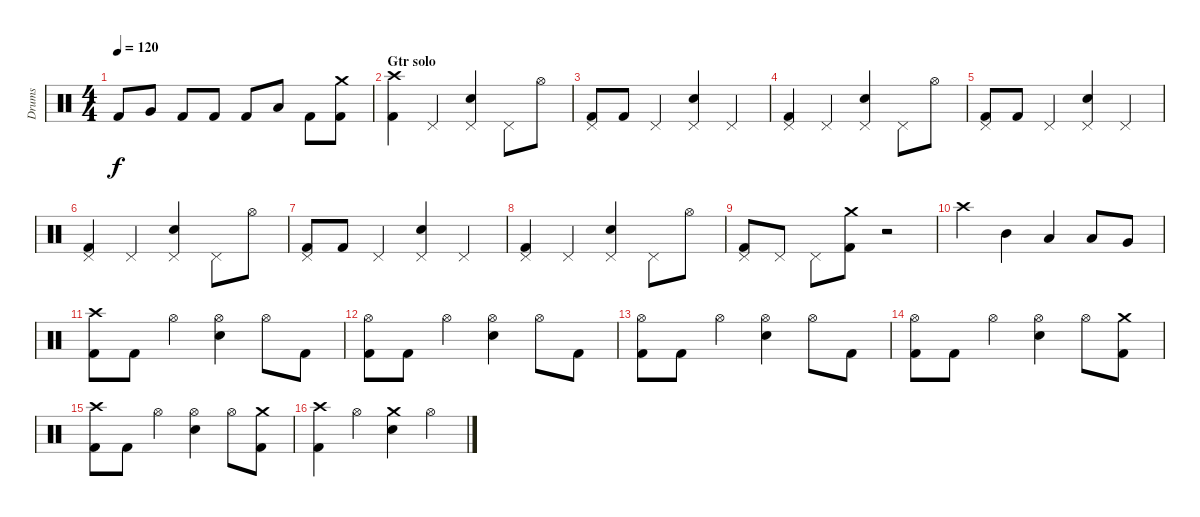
\track ("Drums" "Drums") {instrument percussion}
\staff {score}
\articulation defaults
\ts (4 4)
\tempo 120
\clef neutral
\ks c "Kick (hit) 2".8{dy f} "Very Low Tom (hit)".8 "Kick (hit) 2".8 "Kick (hit) 2".8 "Kick (hit) 2".8 "Low Tom (hit)".8 "Kick (hit) 2".8
("Crash medium (hit)" "Kick (hit) 2").8 |
\section ("" "Gtr solo")
("Crash high (hit)" "Kick (hit) 2").4 "Pedal Hi-Hat (hit)".4 ("Pedal Hi-Hat (hit)" "Electric Snare (hit)").4 "Pedal Hi-Hat (hit)".8 "Hi-Hat (open)".8 |
("Pedal Hi-Hat (hit)" "Kick (hit) 2").8 "Kick (hit) 2".8 "Pedal Hi-Hat (hit)".4 ("Pedal Hi-Hat (hit)" "Electric Snare (hit)").4 "Pedal Hi-Hat (hit)".4 |
("Pedal Hi-Hat (hit)" "Kick (hit) 2").4 "Pedal Hi-Hat (hit)".4 ("Pedal Hi-Hat (hit)" "Electric Snare (hit)").4 "Pedal Hi-Hat (hit)".8 "Hi-Hat (open)".8 |
("Pedal Hi-Hat (hit)" "Kick (hit) 2").8 "Kick (hit) 2".8 "Pedal Hi-Hat (hit)".4 ("Pedal Hi-Hat (hit)" "Electric Snare (hit)").4 "Pedal Hi-Hat (hit)".4 |
("Pedal Hi-Hat (hit)" "Kick (hit) 2").4 "Pedal Hi-Hat (hit)".4 ("Pedal Hi-Hat (hit)" "Electric Snare (hit)").4 "Pedal Hi-Hat (hit)".8 "Hi-Hat (open)".8 |
("Pedal Hi-Hat (hit)" "Kick (hit) 2").8 "Kick (hit) 2".8 "Pedal Hi-Hat (hit)".4 ("Pedal Hi-Hat (hit)" "Electric Snare (hit)").4 "Pedal Hi-Hat (hit)".4 |
("Pedal Hi-Hat (hit)" "Kick (hit) 2").4 "Pedal Hi-Hat (hit)".4 ("Pedal Hi-Hat (hit)" "Electric Snare (hit)").4 "Pedal Hi-Hat (hit)".8 "Hi-Hat (open)".8 |
("Pedal Hi-Hat (hit)" "Kick (hit) 2").8 "Pedal Hi-Hat (hit)".8 "Pedal Hi-Hat (hit)".8 ("Crash medium (hit)" "Kick (hit) 2").8 r.2 |
"Crash high (hit)".4 "Mid Tom (hit)".4 "Low Tom (hit)".4 "Low Tom (hit)".8 "Very Low Tom (hit)".8 |
("Crash high (hit)" "Kick (hit) 2").8 "Kick (hit) 2".8 "Hi-Hat (open)".4 ("Hi-Hat (open)" "Electric Snare (hit)").4 "Hi-Hat (open)".8 "Kick (hit) 2".8 |
("Hi-Hat (open)" "Kick (hit) 2").8 "Kick (hit) 2".8 "Hi-Hat (open)".4 ("Hi-Hat (open)" "Electric Snare (hit)").4 "Hi-Hat (open)".8 "Kick (hit) 2".8 |
("Hi-Hat (open)" "Kick (hit) 2").8 "Kick (hit) 2".8 "Hi-Hat (open)".4 ("Hi-Hat (open)" "Electric Snare (hit)").4 "Hi-Hat (open)".8 "Kick (hit) 2".8 |
("Hi-Hat (open)" "Kick (hit) 2").8 "Kick (hit) 2".8 "Hi-Hat (open)".4 ("Hi-Hat (open)" "Electric Snare (hit)").4 "Hi-Hat (open)".8 ("Crash medium (hit)" "Kick (hit) 2").8 |
("Crash high (hit)" "Kick (hit) 2").8 "Kick (hit) 2".8 "Hi-Hat (open)".4 ("Hi-Hat (open)" "Electric Snare (hit)").4 "Hi-Hat (open)".8 ("Crash medium (hit)" "Kick (hit) 2").8 |
("Crash high (hit)" "Kick (hit) 2").4 "Hi-Hat (open)".4 ("Crash medium (hit)" "Electric Snare (hit)").4 "Hi-Hat (open)".4
